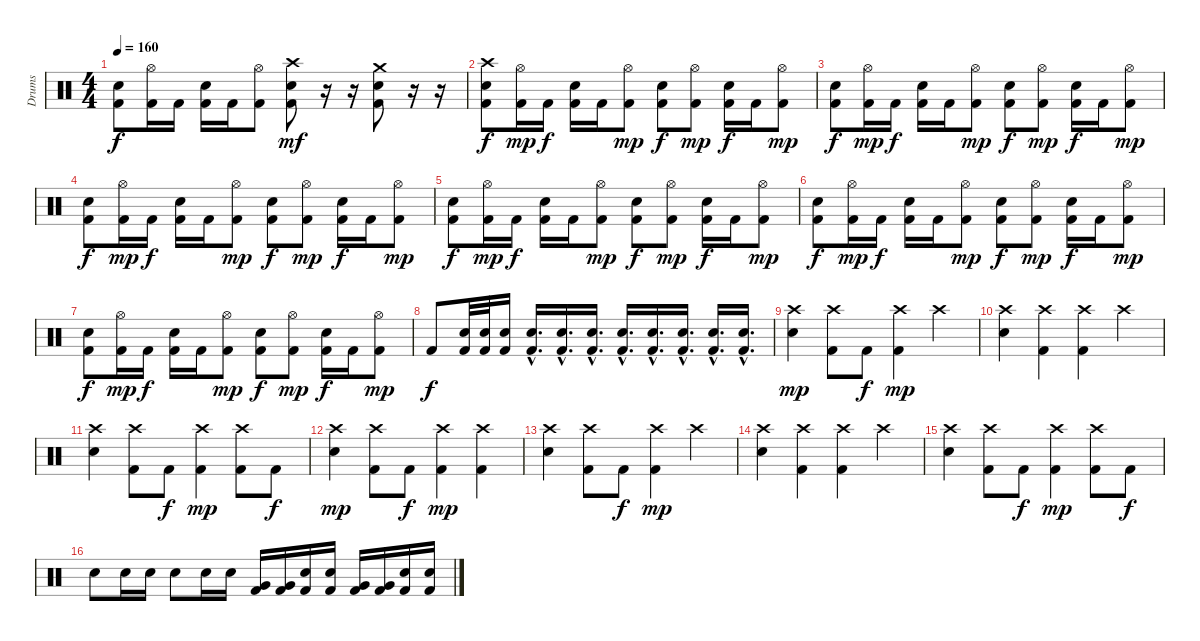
\track ("Drums" "Drums") {instrument percussion}
\staff {score}
\articulation defaults
\ts (4 4)
\tempo 160
\clef neutral
\ks c
("Electric Snare (hit)" "Kick (hit) 2").8{dy f} ("Hi-Hat (open)" "Kick (hit) 2").16 "Kick (hit) 2".16 ("Electric Snare (hit)" "Kick (hit) 2").16 "Kick (hit) 2".16 ("Hi-Hat (open)" "Kick (hit) 2").8 ("Crash high (hit)" "Electric Snare (hit)" "Kick (hit) 2").8{dy mf} r.16 r.16 ("Crash medium (hit)" "Electric Snare (hit)" "Kick (hit) 2").8 r.16 r.16 |
("Crash high (hit)" "Electric Snare (hit)" "Kick (hit) 2").8{dy f} ("Hi-Hat (open)" "Kick (hit) 2").16{dy mp} "Kick (hit) 2".16{dy f} ("Electric Snare (hit)" "Kick (hit) 2").16 "Kick (hit) 2".16 ("Hi-Hat (open)" "Kick (hit) 2").8{dy mp} ("Electric Snare (hit)" "Kick (hit) 2").8{dy f} ("Hi-Hat (open)" "Kick (hit) 2").8{dy mp} ("Electric Snare (hit)" "Kick (hit) 2").16{dy f} "Kick (hit) 2".16 ("Hi-Hat (open)" "Kick (hit) 2").8{dy mp} |
("Electric Snare (hit)" "Kick (hit) 2").8{dy f} ("Hi-Hat (open)" "Kick (hit) 2").16{dy mp} "Kick (hit) 2".16{dy f} ("Electric Snare (hit)" "Kick (hit) 2").16 "Kick (hit) 2".16 ("Hi-Hat (open)" "Kick (hit) 2").8{dy mp} ("Electric Snare (hit)" "Kick (hit) 2").8{dy f} ("Hi-Hat (open)" "Kick (hit) 2").8{dy mp} ("Electric Snare (hit)" "Kick (hit) 2").16{dy f} "Kick (hit) 2".16 ("Hi-Hat (open)" "Kick (hit) 2").8{dy mp} |
("Electric Snare (hit)" "Kick (hit) 2").8{dy f} ("Hi-Hat (open)" "Kick (hit) 2").16{dy mp} "Kick (hit) 2".16{dy f} ("Electric Snare (hit)" "Kick (hit) 2").16 "Kick (hit) 2".16 ("Hi-Hat (open)" "Kick (hit) 2").8{dy mp} ("Electric Snare (hit)" "Kick (hit) 2").8{dy f} ("Hi-Hat (open)" "Kick (hit) 2").8{dy mp} ("Electric Snare (hit)" "Kick (hit) 2").16{dy f} "Kick (hit) 2".16 ("Hi-Hat (open)" "Kick (hit) 2").8{dy mp} |
("Electric Snare (hit)" "Kick (hit) 2").8{dy f} ("Hi-Hat (open)" "Kick (hit) 2").16{dy mp} "Kick (hit) 2".16{dy f} ("Electric Snare (hit)" "Kick (hit) 2").16 "Kick (hit) 2".16 ("Hi-Hat (open)" "Kick (hit) 2").8{dy mp} ("Electric Snare (hit)" "Kick (hit) 2").8{dy f} ("Hi-Hat (open)" "Kick (hit) 2").8{dy mp} ("Electric Snare (hit)" "Kick (hit) 2").16{dy f} "Kick (hit) 2".16 ("Hi-Hat (open)" "Kick (hit) 2").8{dy mp} |
("Electric Snare (hit)" "Kick (hit) 2").8{dy f} ("Hi-Hat (open)" "Kick (hit) 2").16{dy mp} "Kick (hit) 2".16{dy f} ("Electric Snare (hit)" "Kick (hit) 2").16 "Kick (hit) 2".16 ("Hi-Hat (open)" "Kick (hit) 2").8{dy mp} ("Electric Snare (hit)" "Kick (hit) 2").8{dy f} ("Hi-Hat (open)" "Kick (hit) 2").8{dy mp} ("Electric Snare (hit)" "Kick (hit) 2").16{dy f} "Kick (hit) 2".16 ("Hi-Hat (open)" "Kick (hit) 2").8{dy mp} |
("Electric Snare (hit)" "Kick (hit) 2").8{dy f} ("Hi-Hat (open)" "Kick (hit) 2").16{dy mp} "Kick (hit) 2".16{dy f} ("Electric Snare (hit)" "Kick (hit) 2").16 "Kick (hit) 2".16 ("Hi-Hat (open)" "Kick (hit) 2").8{dy mp} ("Electric Snare (hit)" "Kick (hit) 2").8{dy f} ("Hi-Hat (open)" "Kick (hit) 2").8{dy mp} ("Electric Snare (hit)" "Kick (hit) 2").16{dy f} "Kick (hit) 2".16 ("Hi-Hat (open)" "Kick (hit) 2").8{dy mp} |
"Kick (hit) 2".8{dy f} ("Electric Snare (hit)" "Kick (hit) 2").32 ("Electric Snare (hit)" "Kick (hit) 2").32 ("Electric Snare (hit)" "Kick (hit) 2").16 ("Electric Snare (hit)"{hac} "Kick (hit) 2"{hac}).16{d} ("Electric Snare (hit)"{hac} "Kick (hit) 2"{hac}).16{d} ("Electric Snare (hit)"{hac} "Kick (hit) 2"{hac}).16{d} ("Electric Snare (hit)"{hac} "Kick (hit) 2"{hac}).16{d} ("Electric Snare (hit)"{hac} "Kick (hit) 2"{hac}).16{d} ("Electric Snare (hit)"{hac} "Kick (hit) 2"{hac}).16{d} ("Electric Snare (hit)"{hac} "Kick (hit) 2"{hac}).16{d} ("Electric Snare (hit)"{hac} "Kick (hit) 2"{hac}).16{d} |
("Crash high (hit)" "Electric Snare (hit)").4{dy mp} ("Crash high (hit)" "Kick (hit) 2").8 "Kick (hit) 2".8{dy f} ("Crash high (hit)" "Kick (hit) 2").4{dy mp} "Crash high (hit)".4 |
("Crash high (hit)" "Electric Snare (hit)").4 ("Crash high (hit)" "Kick (hit) 2").4 ("Crash high (hit)" "Kick (hit) 2").4 "Crash high (hit)".4 |
("Crash high (hit)" "Electric Snare (hit)").4 ("Crash high (hit)" "Kick (hit) 2").8 "Kick (hit) 2".8{dy f} ("Crash high (hit)" "Kick (hit) 2").4{dy mp} ("Crash high (hit)" "Kick (hit) 2").8 "Kick (hit) 2".8{dy f} |
("Crash high (hit)" "Electric Snare (hit)").4{dy mp} ("Crash high (hit)" "Kick (hit) 2").8 "Kick (hit) 2".8{dy f} ("Crash high (hit)" "Kick (hit) 2").4{dy mp} ("Crash high (hit)" "Kick (hit) 2").4 |
("Crash high (hit)" "Electric Snare (hit)").4 ("Crash high (hit)" "Kick (hit) 2").8 "Kick (hit) 2".8{dy f} ("Crash high (hit)" "Kick (hit) 2").4{dy mp} "Crash high (hit)".4 |
("Crash high (hit)" "Electric Snare (hit)").4 ("Crash high (hit)" "Kick (hit) 2").4 ("Crash high (hit)" "Kick (hit) 2").4 "Crash high (hit)".4 |
("Crash high (hit)" "Electric Snare (hit)").4 ("Crash high (hit)" "Kick (hit) 2").8 "Kick (hit) 2".8{dy f} ("Crash high (hit)" "Kick (hit) 2").4{dy mp} ("Crash high (hit)" "Kick (hit) 2").8 "Kick (hit) 2".8{dy f} |
"Electric Snare (hit)".8 "Electric Snare (hit)".16 "Electric Snare (hit)".16 "Electric Snare (hit)".8 "Electric Snare (hit)".16 "Electric Snare (hit)".16 ("Very Low Tom (hit)" "Kick (hit) 2").16 ("Very Low Tom (hit)" "Kick (hit) 2").16 ("Electric Snare (hit)" "Kick (hit) 2").16 ("Electric Snare (hit)" "Kick (hit) 2").16 ("Very Low Tom (hit)" "Kick (hit) 2").16 ("Very Low Tom (hit)" "Kick (hit) 2").16 ("Electric Snare (hit)" "Kick (hit) 2").16 ("Electric Snare (hit)" "Kick (hit) 2").16
